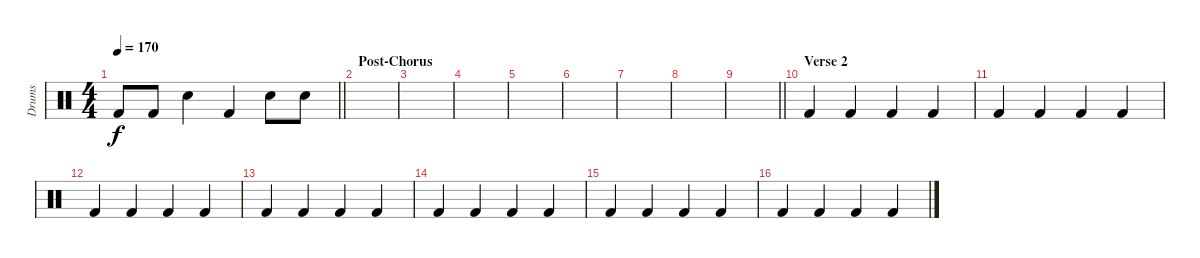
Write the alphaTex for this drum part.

\track ("Drums" "Drums") {instrument percussion}
\staff {score}
\articulation defaults
\ts (4 4)
\tempo 170
\clef neutral
\barLineRight lightlight
\ks c "Kick (hit) 2".8{dy f} "Kick (hit) 2".8 "Hand Clap (hit)".4 "Kick (hit) 2".4 "Hand Clap (hit)".8 "Hand Clap (hit)".8
|
\section ("" "Post-Chorus")
|
|
|
|
|
|
|
\barLineRight lightlight
|
\section ("" "Verse 2")
"Kick (hit) 2".4 "Kick (hit) 2".4 "Kick (hit) 2".4 "Kick (hit) 2".4 |
"Kick (hit) 2".4 "Kick (hit) 2".4 "Kick (hit) 2".4 "Kick (hit) 2".4 |
"Kick (hit) 2".4 "Kick (hit) 2".4 "Kick (hit) 2".4 "Kick (hit) 2".4 |
"Kick (hit) 2".4 "Kick (hit) 2".4 "Kick (hit) 2".4 "Kick (hit) 2".4 |
"Kick (hit) 2".4 "Kick (hit) 2".4 "Kick (hit) 2".4 "Kick (hit) 2".4 |
"Kick (hit) 2".4 "Kick (hit) 2".4 "Kick (hit) 2".4 "Kick (hit) 2".4 |
"Kick (hit) 2".4 "Kick (hit) 2".4 "Kick (hit) 2".4 "Kick (hit) 2".4
